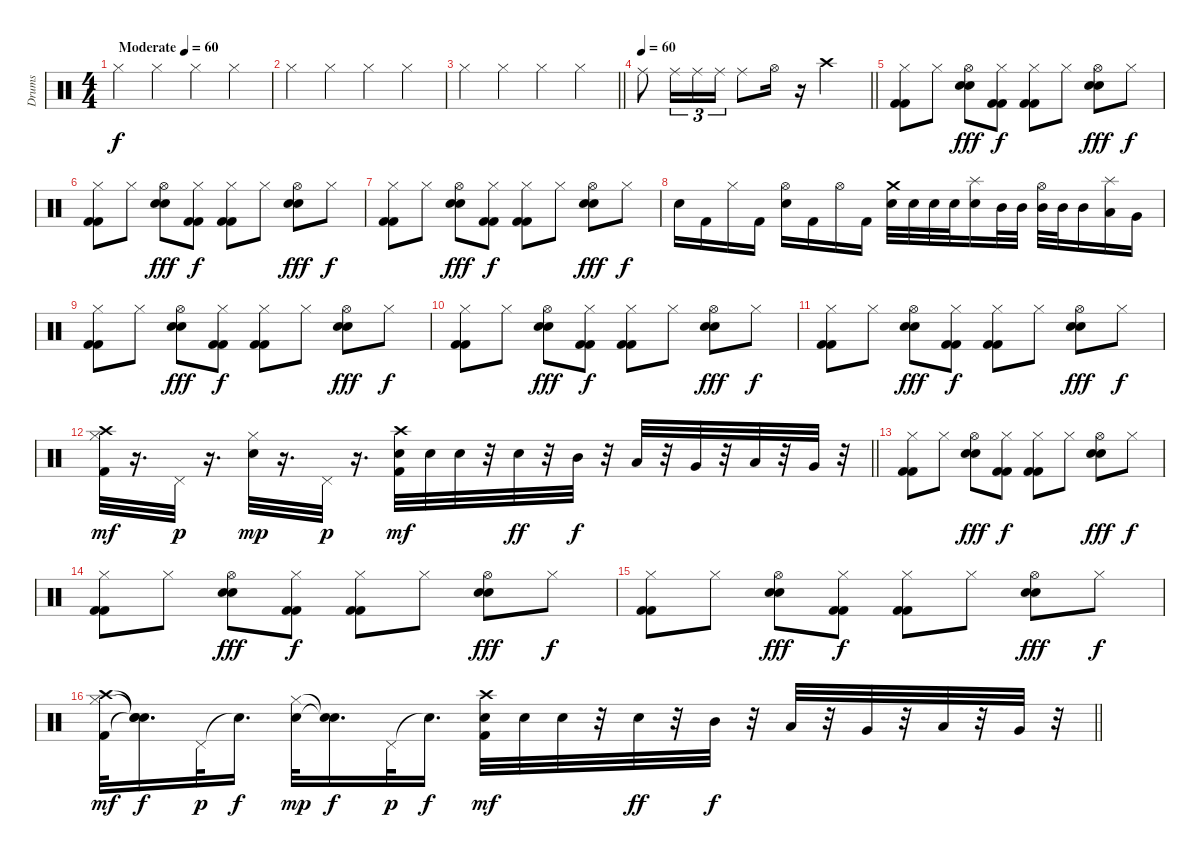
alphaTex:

\track ("Drums" "Drums") {instrument percussion}
\staff {score}
\articulation defaults
\ts (4 4)
\tempo (60 "Moderate")
\tempo 80
\tempo (60 "Moderate")
\clef neutral
\ks c "Hi-Hat (closed)".4{dy f} "Hi-Hat (closed)".4 "Hi-Hat (closed)".4 "Hi-Hat (closed)".4
|
"Hi-Hat (closed)".4 "Hi-Hat (closed)".4 "Hi-Hat (closed)".4 "Hi-Hat (closed)".4 |
\barLineRight lightlight "Hi-Hat (closed)".4 "Hi-Hat (closed)".4 "Hi-Hat (closed)".4 "Hi-Hat (closed)".4
|
\tempo 60
\barLineRight lightlight "Ride (middle)".8 "Ride (middle)".16{tu (3 2)} "Ride (middle)".16{tu (3 2)} "Ride (middle)".16{tu (3 2)} "Ride (middle)".8 "Hi-Hat (open)".16
r.16 "Crash high (hit)".2 |
("Hi-Hat (closed)" "Kick (hit) 2" "Kick (hit) 2").8 "Hi-Hat (closed)".8 ("Hi-Hat (open)" "Electric Snare (hit)" "Electric Snare (hit)").8{dy fff} ("Hi-Hat (closed)" "Kick (hit) 2" "Kick (hit) 2").8{dy f} ("Hi-Hat (closed)" "Kick (hit) 2" "Kick (hit) 2").8 "Hi-Hat (closed)".8 ("Hi-Hat (open)" "Electric Snare (hit)" "Electric Snare (hit)").8{dy fff} "Hi-Hat (closed)".8{dy f} |
("Hi-Hat (closed)" "Kick (hit) 2" "Kick (hit) 2").8 "Hi-Hat (closed)".8 ("Hi-Hat (open)" "Electric Snare (hit)" "Electric Snare (hit)").8{dy fff} ("Hi-Hat (closed)" "Kick (hit) 2" "Kick (hit) 2").8{dy f} ("Hi-Hat (closed)" "Kick (hit) 2" "Kick (hit) 2").8 "Hi-Hat (closed)".8 ("Hi-Hat (open)" "Electric Snare (hit)" "Electric Snare (hit)").8{dy fff} "Hi-Hat (closed)".8{dy f} |
("Hi-Hat (closed)" "Kick (hit) 2" "Kick (hit) 2").8 "Hi-Hat (closed)".8 ("Hi-Hat (open)" "Electric Snare (hit)" "Electric Snare (hit)").8{dy fff} ("Hi-Hat (closed)" "Kick (hit) 2" "Kick (hit) 2").8{dy f} ("Hi-Hat (closed)" "Kick (hit) 2" "Kick (hit) 2").8 "Hi-Hat (closed)".8 ("Hi-Hat (open)" "Electric Snare (hit)" "Electric Snare (hit)").8{dy fff} "Hi-Hat (closed)".8{dy f} |
"Snare (hit) 2".16 "Kick (hit) 2".16 "Hi-Hat (closed)".16 "Kick (hit) 2".16 ("Hi-Hat (open)" "Snare (hit) 2").16 "Kick (hit) 2".16 "Hi-Hat (open)".16 "Kick (hit) 2".16 ("Crash medium (hit)" "Snare (hit) 2").32 "Snare (hit) 2".32 "Snare (hit) 2".32 "Snare (hit) 2".32 ("Splash (hit)" "Snare (hit) 2").16 "Mid Tom (hit)".32 "Mid Tom (hit)".32 ("Hi-Hat (open)" "Mid Tom (hit)").32 "Mid Tom (hit)".32 "Mid Tom (hit)".16 ("Splash (hit)" "Low Tom (hit)").16 "Very Low Tom (hit)".16 |
("Hi-Hat (closed)" "Kick (hit) 2" "Kick (hit) 2").8 "Hi-Hat (closed)".8 ("Hi-Hat (open)" "Electric Snare (hit)" "Electric Snare (hit)").8{dy fff} ("Hi-Hat (closed)" "Kick (hit) 2" "Kick (hit) 2").8{dy f} ("Hi-Hat (closed)" "Kick (hit) 2" "Kick (hit) 2").8 "Hi-Hat (closed)".8 ("Hi-Hat (open)" "Electric Snare (hit)" "Electric Snare (hit)").8{dy fff} "Hi-Hat (closed)".8{dy f} |
("Hi-Hat (closed)" "Kick (hit) 2" "Kick (hit) 2").8 "Hi-Hat (closed)".8 ("Hi-Hat (open)" "Electric Snare (hit)" "Electric Snare (hit)").8{dy fff} ("Hi-Hat (closed)" "Kick (hit) 2" "Kick (hit) 2").8{dy f} ("Hi-Hat (closed)" "Kick (hit) 2" "Kick (hit) 2").8 "Hi-Hat (closed)".8 ("Hi-Hat (open)" "Electric Snare (hit)" "Electric Snare (hit)").8{dy fff} "Hi-Hat (closed)".8{dy f} |
("Hi-Hat (closed)" "Kick (hit) 2" "Kick (hit) 2").8 "Hi-Hat (closed)".8 ("Hi-Hat (open)" "Electric Snare (hit)" "Electric Snare (hit)").8{dy fff} ("Hi-Hat (closed)" "Kick (hit) 2" "Kick (hit) 2").8{dy f} ("Hi-Hat (closed)" "Kick (hit) 2" "Kick (hit) 2").8 "Hi-Hat (closed)".8 ("Hi-Hat (open)" "Electric Snare (hit)" "Electric Snare (hit)").8{dy fff} "Hi-Hat (closed)".8{dy f} |
\barLineRight lightlight
("Kick (hit) 2" "Hi-Hat (closed)" "Crash high (hit)").32{dy mf} r.16{d} "Pedal Hi-Hat (hit)".32{dy p} r.16{d} ("Snare (hit) 2" "Hi-Hat (closed)").32{dy mp} r.16{d} "Pedal Hi-Hat (hit)".32{dy p} r.16{d} ("Snare (hit) 2" "Kick (hit) 2" "Crash high (hit)").32{dy mf} "Snare (hit) 2".32 "Snare (hit) 2".32 r.32 "Snare (hit) 2".32{dy ff} r.32 "Mid Tom (hit)".32{dy f} r.32 "Low Tom (hit)".32 r.32 "Very Low Tom (hit)".32 r.32 "Low Floor Tom (hit)".32 r.32 "Very Low Tom (hit)".32 r.32 |
\section ("" "")
("Hi-Hat (closed)" "Kick (hit) 2" "Kick (hit) 2").8 "Hi-Hat (closed)".8 ("Hi-Hat (open)" "Electric Snare (hit)" "Electric Snare (hit)").8{dy fff} ("Hi-Hat (closed)" "Kick (hit) 2" "Kick (hit) 2").8{dy f} ("Hi-Hat (closed)" "Kick (hit) 2" "Kick (hit) 2").8 "Hi-Hat (closed)".8 ("Hi-Hat (open)" "Electric Snare (hit)" "Electric Snare (hit)").8{dy fff} "Hi-Hat (closed)".8{dy f} |
("Hi-Hat (closed)" "Kick (hit) 2" "Kick (hit) 2").8 "Hi-Hat (closed)".8 ("Hi-Hat (open)" "Electric Snare (hit)" "Electric Snare (hit)").8{dy fff} ("Hi-Hat (closed)" "Kick (hit) 2" "Kick (hit) 2").8{dy f} ("Hi-Hat (closed)" "Kick (hit) 2" "Kick (hit) 2").8 "Hi-Hat (closed)".8 ("Hi-Hat (open)" "Electric Snare (hit)" "Electric Snare (hit)").8{dy fff} "Hi-Hat (closed)".8{dy f} |
("Hi-Hat (closed)" "Kick (hit) 2" "Kick (hit) 2").8 "Hi-Hat (closed)".8 ("Hi-Hat (open)" "Electric Snare (hit)" "Electric Snare (hit)").8{dy fff} ("Hi-Hat (closed)" "Kick (hit) 2" "Kick (hit) 2").8{dy f} ("Hi-Hat (closed)" "Kick (hit) 2" "Kick (hit) 2").8 "Hi-Hat (closed)".8 ("Hi-Hat (open)" "Electric Snare (hit)" "Electric Snare (hit)").8{dy fff} "Hi-Hat (closed)".8{dy f} |
\barLineRight lightlight
("Kick (hit) 2" "Hi-Hat (closed)" "Crash high (hit)").32{dy mf} ("Snare (hit)"{t} "Snare (hit)"{t} "Snare (hit)"{t}).16{d dy f} "Pedal Hi-Hat (hit)".32{dy p} "Snare (hit)"{t}.16{d dy f} ("Snare (hit) 2" "Hi-Hat (closed)").32{dy mp} ("Snare (hit)"{t} "Snare (hit)"{t}).16{d dy f} "Pedal Hi-Hat (hit)".32{dy p} "Snare (hit)"{t}.16{d dy f} ("Snare (hit) 2" "Kick (hit) 2" "Crash high (hit)").32{dy mf} "Snare (hit) 2".32 "Snare (hit) 2".32 r.32 "Snare (hit) 2".32{dy ff} r.32 "Mid Tom (hit)".32{dy f} r.32 "Low Tom (hit)".32 r.32 "Very Low Tom (hit)".32 r.32 "Low Floor Tom (hit)".32 r.32 "Very Low Tom (hit)".32 r.32
